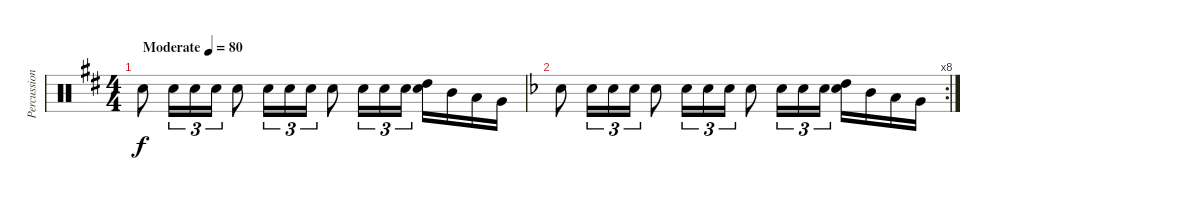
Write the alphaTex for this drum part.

\track ("Percussion" "Percussion") {instrument percussion}
\staff {score}
\articulation defaults
\ts (4 4)
\tempo (80 "Moderate")
\clef neutral
\ks d "Electric Snare (hit)".8{dy f} "Electric Snare (hit)".16{tu (3 2)} "Electric Snare (hit)".16{tu (3 2)} "Electric Snare (hit)".16{tu (3 2)} "Electric Snare (hit)".8 "Electric Snare (hit)".16{tu (3 2)} "Electric Snare (hit)".16{tu (3 2)} "Electric Snare (hit)".16{tu (3 2)} "Electric Snare (hit)".8 "Electric Snare (hit)".16{tu (3 2)} "Electric Snare (hit)".16{tu (3 2)} "Electric Snare (hit)".16{tu (3 2)}
("High Tom (hit)" "Electric Snare (hit)").16 "Mid Tom (hit)".16 "Low Tom (hit)".16 "Very Low Tom (hit)".16 |
\rc 8
\ks dminor "Electric Snare (hit)".8 "Electric Snare (hit)".16{tu (3 2)} "Electric Snare (hit)".16{tu (3 2)} "Electric Snare (hit)".16{tu (3 2)} "Electric Snare (hit)".8 "Electric Snare (hit)".16{tu (3 2)} "Electric Snare (hit)".16{tu (3 2)} "Electric Snare (hit)".16{tu (3 2)} "Electric Snare (hit)".8 "Electric Snare (hit)".16{tu (3 2)} "Electric Snare (hit)".16{tu (3 2)} "Electric Snare (hit)".16{tu (3 2)}
("High Tom (hit)" "Electric Snare (hit)").16 "Mid Tom (hit)".16 "Low Tom (hit)".16 "Very Low Tom (hit)".16
